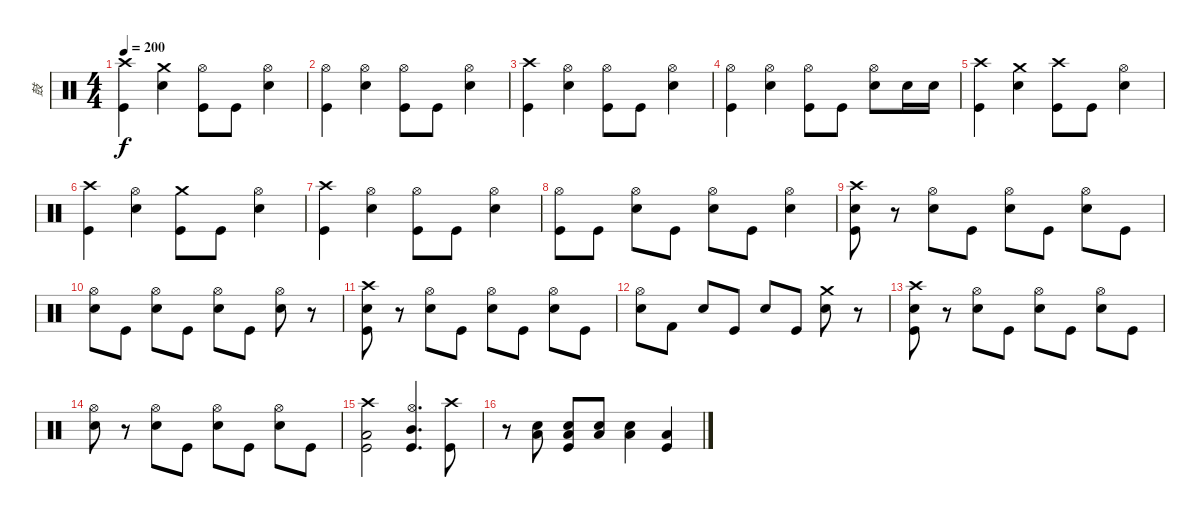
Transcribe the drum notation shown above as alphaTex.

\track ("鼓" "鼓") {instrument percussion}
\staff {score}
\articulation defaults
\ts (4 4)
\tempo 200
\clef neutral
\ks c
("Crash high (hit)" "Kick (hit)").4{dy f} ("Crash medium (hit)" "Snare (hit) 2").4 ("Hi-Hat (open)" "Kick (hit)").8 "Kick (hit)".8 ("Hi-Hat (open)" "Snare (hit) 2").4 |
("Hi-Hat (open)" "Kick (hit)").4 ("Hi-Hat (open)" "Snare (hit) 2").4 ("Hi-Hat (open)" "Kick (hit)").8 "Kick (hit)".8 ("Hi-Hat (open)" "Snare (hit) 2").4 |
("Crash high (hit)" "Kick (hit)").4 ("Hi-Hat (open)" "Snare (hit) 2").4 ("Hi-Hat (open)" "Kick (hit)").8 "Kick (hit)".8 ("Hi-Hat (open)" "Snare (hit) 2").4 |
("Hi-Hat (open)" "Kick (hit)").4 ("Hi-Hat (open)" "Snare (hit) 2").4 ("Hi-Hat (open)" "Kick (hit)").8 "Kick (hit)".8 ("Hi-Hat (open)" "Snare (hit) 2").8 "Snare (hit) 2".16 "Snare (hit) 2".16 |
("Crash high (hit)" "Kick (hit)").4 ("Crash medium (hit)" "Snare (hit) 2").4 ("Crash high (hit)" "Kick (hit)").8 "Kick (hit)".8 ("Hi-Hat (open)" "Snare (hit) 2").4 |
("Crash high (hit)" "Kick (hit)").4 ("Hi-Hat (open)" "Snare (hit) 2").4 ("Crash medium (hit)" "Kick (hit)").8 "Kick (hit)".8 ("Hi-Hat (open)" "Snare (hit) 2").4 |
("Crash high (hit)" "Kick (hit)").4 ("Hi-Hat (open)" "Snare (hit) 2").4 ("Hi-Hat (open)" "Kick (hit)").8 "Kick (hit)".8 ("Hi-Hat (open)" "Snare (hit) 2").4 |
("Hi-Hat (open)" "Kick (hit)").8 "Kick (hit)".8 ("Hi-Hat (open)" "Snare (hit) 2").8 "Kick (hit)".8 ("Hi-Hat (open)" "Snare (hit) 2").8 "Kick (hit)".8 ("Hi-Hat (open)" "Snare (hit) 2").4 |
("Crash high (hit)" "Snare (hit) 2" "Kick (hit)").8 r.8 ("Hi-Hat (open)" "Snare (hit) 2").8 "Kick (hit)".8 ("Hi-Hat (open)" "Snare (hit) 2").8 "Kick (hit)".8 ("Hi-Hat (open)" "Snare (hit) 2").8 "Kick (hit)".8 |
("Hi-Hat (open)" "Snare (hit) 2").8 "Kick (hit)".8 ("Hi-Hat (open)" "Snare (hit) 2").8 "Kick (hit)".8 ("Hi-Hat (open)" "Snare (hit) 2").8 "Kick (hit)".8 ("Hi-Hat (open)" "Snare (hit) 2").8 r.8 |
("Crash high (hit)" "Snare (hit) 2" "Kick (hit)").8 r.8 ("Hi-Hat (open)" "Snare (hit) 2").8 "Kick (hit)".8 ("Hi-Hat (open)" "Snare (hit) 2").8 "Kick (hit)".8 ("Hi-Hat (open)" "Snare (hit) 2").8 "Kick (hit)".8 |
("Hi-Hat (open)" "Snare (hit) 2").8 "Kick (hit) 2".8 "Snare (hit) 2".8 "Kick (hit)".8 "Snare (hit) 2".8 "Kick (hit)".8 ("Crash medium (hit)" "Snare (hit) 2").8 r.8 |
("Crash high (hit)" "Snare (hit) 2" "Kick (hit)").8 r.8 ("Hi-Hat (open)" "Snare (hit) 2").8 "Kick (hit)".8 ("Hi-Hat (open)" "Snare (hit) 2").8 "Kick (hit)".8 ("Hi-Hat (open)" "Snare (hit) 2").8 "Kick (hit)".8 |
("Hi-Hat (open)" "Snare (hit) 2").8 r.8 ("Hi-Hat (open)" "Snare (hit) 2").8 "Kick (hit)".8 ("Hi-Hat (open)" "Snare (hit) 2").8 "Kick (hit)".8 ("Hi-Hat (open)" "Snare (hit) 2").8 "Kick (hit)".8 |
("Crash high (hit)" "Low Tom (hit)" "Kick (hit)").2 ("Hi-Hat (open)" "Mid Tom (hit)" "Kick (hit)").4{d} ("Crash high (hit)" "Kick (hit)").8 |
r.8 ("Snare (hit) 2" "Low Floor Tom (hit)").8 ("Snare (hit) 2" "Low Floor Tom (hit)" "Kick (hit)").8 ("Snare (hit) 2" "Low Floor Tom (hit)").8 ("Snare (hit) 2" "Low Floor Tom (hit)").4 ("Low Tom (hit)" "Kick (hit)").4
